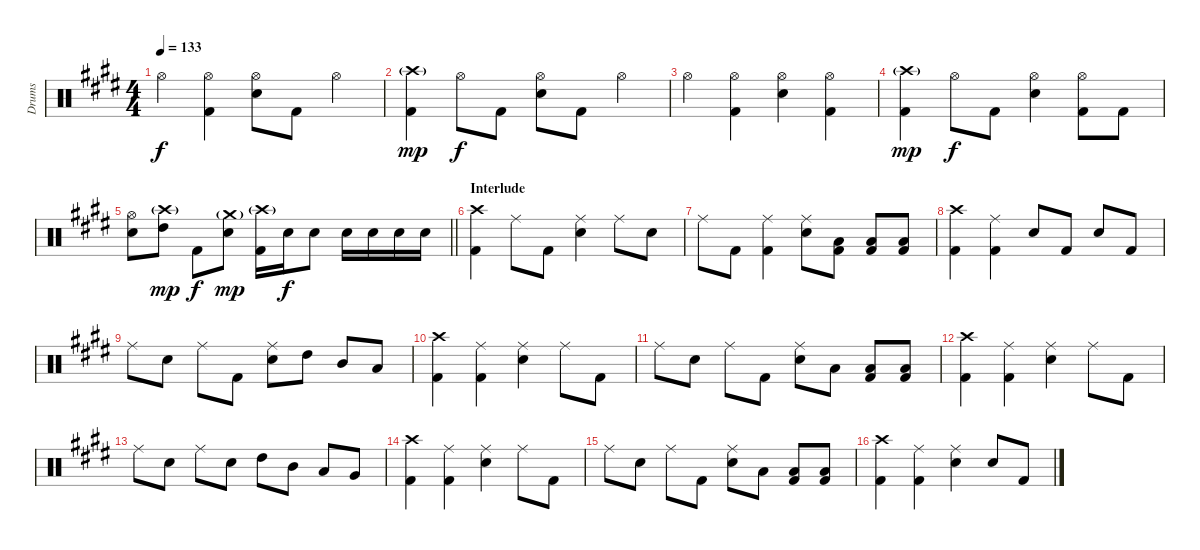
\track ("Drums" "Drums") {instrument percussion}
\staff {score}
\articulation defaults
\ts (4 4)
\tempo 133
\clef neutral
\ks e "Hi-Hat (open)".4{dy f}
("Hi-Hat (open)" "Kick (hit) 2").4 ("Hi-Hat (open)" "Electric Snare (hit)").8 "Kick (hit) 2".8 "Hi-Hat (open)".4 |
("Crash high (hit)"{g} "Kick (hit) 2").4{dy mp} "Hi-Hat (open)".8{dy f} "Kick (hit) 2".8 ("Hi-Hat (open)" "Electric Snare (hit)").8 "Kick (hit) 2".8 "Hi-Hat (open)".4 |
"Hi-Hat (open)".4 ("Hi-Hat (open)" "Kick (hit) 2").4 ("Hi-Hat (open)" "Electric Snare (hit)").4 ("Hi-Hat (open)" "Kick (hit) 2").4 |
("Crash high (hit)"{g} "Kick (hit) 2").4{dy mp} "Hi-Hat (open)".8{dy f} "Kick (hit) 2".8 ("Hi-Hat (open)" "Electric Snare (hit)").4 ("Hi-Hat (open)" "Kick (hit) 2").8 "Kick (hit) 2".8 |
\barLineRight lightlight
("Hi-Hat (open)" "Electric Snare (hit)").8 ("Crash high (hit)"{g} "High Tom (hit)").8{dy mp} "Kick (hit) 2".8{dy f} ("Crash medium (hit)"{g} "Electric Snare (hit)").8{dy mp} ("Crash high (hit)"{g} "Kick (hit) 2").16 "Electric Snare (hit)".16{dy f} "Electric Snare (hit)".8 "Electric Snare (hit)".16 "Electric Snare (hit)".16 "Electric Snare (hit)".16 "Electric Snare (hit)".16 |
\section ("" "Interlude")
("Crash high (hit)" "Kick (hit) 2").4 "Ride (middle)".8 "Kick (hit) 2".8 ("Ride (middle)" "Electric Snare (hit)").4 "Ride (middle)".8 "Electric Snare (hit)".8 |
"Ride (middle)".8 "Kick (hit) 2".8 ("Ride (middle)" "Kick (hit) 2").4 ("Ride (middle)" "Electric Snare (hit)").8 ("Low Floor Tom (hit)" "Kick (hit) 2").8 ("Low Floor Tom (hit)" "Kick (hit) 2").8 ("Low Floor Tom (hit)" "Kick (hit) 2").8 |
("Crash high (hit)" "Kick (hit) 2").4 ("Ride (middle)" "Kick (hit) 2").4 "Electric Snare (hit)".8 "Kick (hit) 2".8 "Electric Snare (hit)".8 "Kick (hit) 2".8 |
"Ride (middle)".8 "Electric Snare (hit)".8 "Ride (middle)".8 "Kick (hit) 2".8 ("Ride (middle)" "Electric Snare (hit)").8 "High Tom (hit)".8 "Mid Tom (hit)".8 "Low Tom (hit)".8 |
("Crash high (hit)" "Kick (hit) 2").4 ("Ride (middle)" "Kick (hit) 2").4 ("Ride (middle)" "Electric Snare (hit)").4 "Ride (middle)".8 "Kick (hit) 2".8 |
"Ride (middle)".8 "Electric Snare (hit)".8 "Ride (middle)".8 "Kick (hit) 2".8 ("Ride (middle)" "Electric Snare (hit)").8 "Low Floor Tom (hit)".8 ("Low Floor Tom (hit)" "Kick (hit) 2").8 ("Low Floor Tom (hit)" "Kick (hit) 2").8 |
("Crash high (hit)" "Kick (hit) 2").4 ("Ride (middle)" "Kick (hit) 2").4 ("Ride (middle)" "Electric Snare (hit)").4 "Ride (middle)".8 "Kick (hit) 2".8 |
"Ride (middle)".8 "Electric Snare (hit)".8 "Ride (middle)".8 "Electric Snare (hit)".8 "High Tom (hit)".8 "Mid Tom (hit)".8 "Low Tom (hit)".8 "Very Low Tom (hit)".8 |
("Crash high (hit)" "Kick (hit) 2").4 ("Ride (middle)" "Kick (hit) 2").4 ("Ride (middle)" "Electric Snare (hit)").4 "Ride (middle)".8 "Kick (hit) 2".8 |
"Ride (middle)".8 "Electric Snare (hit)".8 "Ride (middle)".8 "Kick (hit) 2".8 ("Ride (middle)" "Electric Snare (hit)").8 "Low Floor Tom (hit)".8 ("Low Floor Tom (hit)" "Kick (hit) 2").8 ("Low Floor Tom (hit)" "Kick (hit) 2").8 |
("Crash high (hit)" "Kick (hit) 2").4 ("Ride (middle)" "Kick (hit) 2").4 ("Ride (middle)" "Electric Snare (hit)").4 "Electric Snare (hit)".8 "Kick (hit) 2".8
